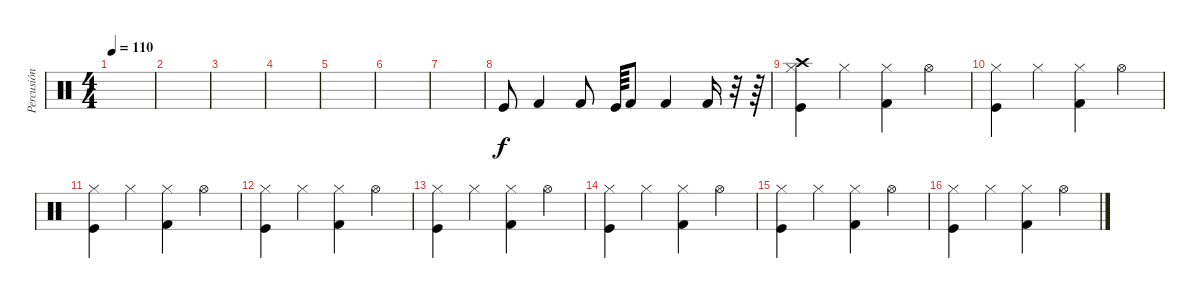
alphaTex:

\track ("Percusión" "Percusión") {instrument percussion}
\staff {score}
\articulation defaults
\ts (4 4)
\tempo 110
\clef neutral
\ks c
|
|
|
|
|
|
|
"Kick (hit)".8 "Kick (hit) 2".4 "Kick (hit) 2".8 "Kick (hit)".64 "Kick (hit) 2".8 "Kick (hit) 2".4 "Kick (hit) 2".16 r.32 r.64 |
("Hi-Hat (closed)" "Kick (hit)" "Crash high (hit)").4 "Hi-Hat (closed)".4 ("Kick (hit) 2" "Hi-Hat (closed)").4 "Hi-Hat (open)".4 |
("Kick (hit)" "Hi-Hat (closed)").4 "Hi-Hat (closed)".4 ("Kick (hit) 2" "Hi-Hat (closed)").4 "Hi-Hat (open)".4 |
("Kick (hit)" "Hi-Hat (closed)").4 "Hi-Hat (closed)".4 ("Kick (hit) 2" "Hi-Hat (closed)").4 "Hi-Hat (open)".4 |
("Kick (hit)" "Hi-Hat (closed)").4 "Hi-Hat (closed)".4 ("Kick (hit) 2" "Hi-Hat (closed)").4 "Hi-Hat (open)".4 |
("Kick (hit)" "Hi-Hat (closed)").4 "Hi-Hat (closed)".4 ("Kick (hit) 2" "Hi-Hat (closed)").4 "Hi-Hat (open)".4 |
("Kick (hit)" "Hi-Hat (closed)").4 "Hi-Hat (closed)".4 ("Kick (hit) 2" "Hi-Hat (closed)").4 "Hi-Hat (open)".4 |
("Kick (hit)" "Hi-Hat (closed)").4 "Hi-Hat (closed)".4 ("Kick (hit) 2" "Hi-Hat (closed)").4 "Hi-Hat (open)".4 |
("Kick (hit)" "Hi-Hat (closed)").4 "Hi-Hat (closed)".4 ("Kick (hit) 2" "Hi-Hat (closed)").4 "Hi-Hat (open)".4
